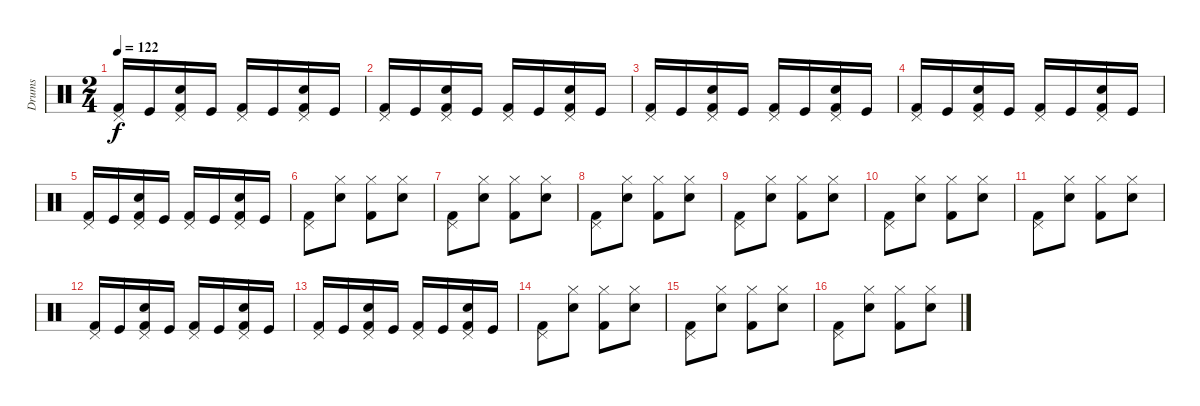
\track ("Drums" "Drums") {instrument percussion}
\staff {score}
\articulation defaults
\ts (2 4)
\tempo 122
\clef neutral
\ks c
("Pedal Hi-Hat (hit)" "Kick (hit) 2").16{dy f} "Kick (hit)".16 ("Pedal Hi-Hat (hit)" "Snare (hit) 2" "Kick (hit) 2").16 "Kick (hit)".16 ("Pedal Hi-Hat (hit)" "Kick (hit) 2").16 "Kick (hit)".16 ("Pedal Hi-Hat (hit)" "Snare (hit) 2" "Kick (hit) 2").16 "Kick (hit)".16 |
("Pedal Hi-Hat (hit)" "Kick (hit) 2").16 "Kick (hit)".16 ("Pedal Hi-Hat (hit)" "Snare (hit) 2" "Kick (hit) 2").16 "Kick (hit)".16 ("Pedal Hi-Hat (hit)" "Kick (hit) 2").16 "Kick (hit)".16 ("Pedal Hi-Hat (hit)" "Snare (hit) 2" "Kick (hit) 2").16 "Kick (hit)".16 |
("Pedal Hi-Hat (hit)" "Kick (hit) 2").16 "Kick (hit)".16 ("Pedal Hi-Hat (hit)" "Snare (hit) 2" "Kick (hit) 2").16 "Kick (hit)".16 ("Pedal Hi-Hat (hit)" "Kick (hit) 2").16 "Kick (hit)".16 ("Pedal Hi-Hat (hit)" "Snare (hit) 2" "Kick (hit) 2").16 "Kick (hit)".16 |
("Pedal Hi-Hat (hit)" "Kick (hit) 2").16 "Kick (hit)".16 ("Pedal Hi-Hat (hit)" "Snare (hit) 2" "Kick (hit) 2").16 "Kick (hit)".16 ("Pedal Hi-Hat (hit)" "Kick (hit) 2").16 "Kick (hit)".16 ("Pedal Hi-Hat (hit)" "Snare (hit) 2" "Kick (hit) 2").16 "Kick (hit)".16 |
("Pedal Hi-Hat (hit)" "Kick (hit) 2").16 "Kick (hit)".16 ("Pedal Hi-Hat (hit)" "Snare (hit) 2" "Kick (hit) 2").16 "Kick (hit)".16 ("Pedal Hi-Hat (hit)" "Kick (hit) 2").16 "Kick (hit)".16 ("Pedal Hi-Hat (hit)" "Snare (hit) 2" "Kick (hit) 2").16 "Kick (hit)".16 |
("Pedal Hi-Hat (hit)" "Kick (hit) 2").8 ("Hi-Hat (closed)" "Snare (hit) 2").8 ("Hi-Hat (closed)" "Kick (hit) 2").8 ("Hi-Hat (closed)" "Snare (hit) 2").8 |
("Pedal Hi-Hat (hit)" "Kick (hit) 2").8 ("Hi-Hat (closed)" "Snare (hit) 2").8 ("Hi-Hat (closed)" "Kick (hit) 2").8 ("Hi-Hat (closed)" "Snare (hit) 2").8 |
("Pedal Hi-Hat (hit)" "Kick (hit) 2").8 ("Hi-Hat (closed)" "Snare (hit) 2").8 ("Hi-Hat (closed)" "Kick (hit) 2").8 ("Hi-Hat (closed)" "Snare (hit) 2").8 |
("Pedal Hi-Hat (hit)" "Kick (hit) 2").8 ("Hi-Hat (closed)" "Snare (hit) 2").8 ("Hi-Hat (closed)" "Kick (hit) 2").8 ("Hi-Hat (closed)" "Snare (hit) 2").8 |
("Pedal Hi-Hat (hit)" "Kick (hit) 2").8 ("Hi-Hat (closed)" "Snare (hit) 2").8 ("Hi-Hat (closed)" "Kick (hit) 2").8 ("Hi-Hat (closed)" "Snare (hit) 2").8 |
("Pedal Hi-Hat (hit)" "Kick (hit) 2").8 ("Hi-Hat (closed)" "Snare (hit) 2").8 ("Hi-Hat (closed)" "Kick (hit) 2").8 ("Hi-Hat (closed)" "Snare (hit) 2").8 |
("Pedal Hi-Hat (hit)" "Kick (hit) 2").16 "Kick (hit)".16 ("Pedal Hi-Hat (hit)" "Snare (hit) 2" "Kick (hit) 2").16 "Kick (hit)".16 ("Pedal Hi-Hat (hit)" "Kick (hit) 2").16 "Kick (hit)".16 ("Pedal Hi-Hat (hit)" "Snare (hit) 2" "Kick (hit) 2").16 "Kick (hit)".16 |
("Pedal Hi-Hat (hit)" "Kick (hit) 2").16 "Kick (hit)".16 ("Pedal Hi-Hat (hit)" "Snare (hit) 2" "Kick (hit) 2").16 "Kick (hit)".16 ("Pedal Hi-Hat (hit)" "Kick (hit) 2").16 "Kick (hit)".16 ("Pedal Hi-Hat (hit)" "Snare (hit) 2" "Kick (hit) 2").16 "Kick (hit)".16 |
("Pedal Hi-Hat (hit)" "Kick (hit) 2").8 ("Hi-Hat (closed)" "Snare (hit) 2").8 ("Hi-Hat (closed)" "Kick (hit) 2").8 ("Hi-Hat (closed)" "Snare (hit) 2").8 |
("Pedal Hi-Hat (hit)" "Kick (hit) 2").8 ("Hi-Hat (closed)" "Snare (hit) 2").8 ("Hi-Hat (closed)" "Kick (hit) 2").8 ("Hi-Hat (closed)" "Snare (hit) 2").8 |
("Pedal Hi-Hat (hit)" "Kick (hit) 2").8 ("Hi-Hat (closed)" "Snare (hit) 2").8 ("Hi-Hat (closed)" "Kick (hit) 2").8 ("Hi-Hat (closed)" "Snare (hit) 2").8
